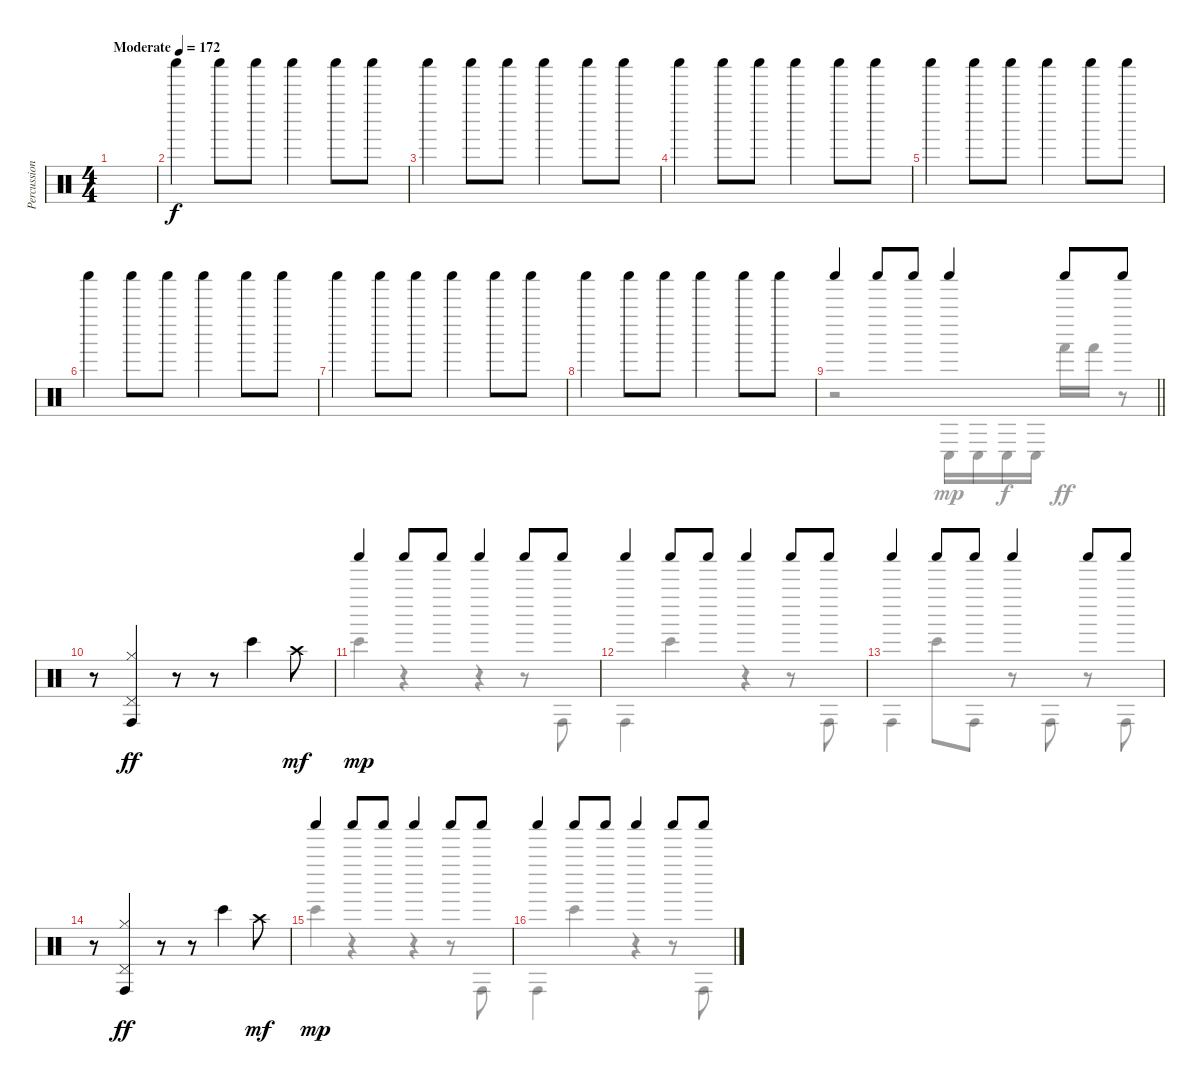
\track ("Percussion" "Percussion") {instrument percussion}
\staff {score}
\articulation defaults
\voice
\ts (4 4)
\tempo (172 "Moderate")
\clef neutral
\ks c
|
"Shaker (hit)".4 "Shaker (hit)".8 "Shaker (hit)".8 "Shaker (hit)".4 "Shaker (hit)".8 "Shaker (hit)".8 |
"Shaker (hit)".4 "Shaker (hit)".8 "Shaker (hit)".8 "Shaker (hit)".4 "Shaker (hit)".8 "Shaker (hit)".8 |
"Shaker (hit)".4 "Shaker (hit)".8 "Shaker (hit)".8 "Shaker (hit)".4 "Shaker (hit)".8 "Shaker (hit)".8 |
"Shaker (hit)".4 "Shaker (hit)".8 "Shaker (hit)".8 "Shaker (hit)".4 "Shaker (hit)".8 "Shaker (hit)".8 |
"Shaker (hit)".4 "Shaker (hit)".8 "Shaker (hit)".8 "Shaker (hit)".4 "Shaker (hit)".8 "Shaker (hit)".8 |
"Shaker (hit)".4 "Shaker (hit)".8 "Shaker (hit)".8 "Shaker (hit)".4 "Shaker (hit)".8 "Shaker (hit)".8 |
"Shaker (hit)".4 "Shaker (hit)".8 "Shaker (hit)".8 "Shaker (hit)".4 "Shaker (hit)".8 "Shaker (hit)".8 |
\barLineRight lightlight "Shaker (hit)".4 "Shaker (hit)".8 "Shaker (hit)".8 "Shaker (hit)".4 "Shaker (hit)".8 "Shaker (hit)".8
|
r.8 ("Conga high (hit)" "Pedal Hi-Hat (hit)" "Hi-Hat (closed)").4{dy ff} r.8 r.8 "Bongo High (hit)".4 "Crash high (hit)".8{dy mf} |
"Shaker (hit)".4{dy mp} "Shaker (hit)".8 "Shaker (hit)".8 "Shaker (hit)".4 "Shaker (hit)".8 "Shaker (hit)".8 |
"Shaker (hit)".4 "Shaker (hit)".8 "Shaker (hit)".8 "Shaker (hit)".4 "Shaker (hit)".8 "Shaker (hit)".8 |
"Shaker (hit)".4 "Shaker (hit)".8 "Shaker (hit)".8 "Shaker (hit)".4 "Shaker (hit)".8 "Shaker (hit)".8 |
r.8 ("Conga high (hit)" "Pedal Hi-Hat (hit)" "Hi-Hat (closed)").4{dy ff} r.8 r.8 "Bongo High (hit)".4 "Crash high (hit)".8{dy mf} |
"Shaker (hit)".4{dy mp} "Shaker (hit)".8 "Shaker (hit)".8 "Shaker (hit)".4 "Shaker (hit)".8 "Shaker (hit)".8 |
"Shaker (hit)".4 "Shaker (hit)".8 "Shaker (hit)".8 "Shaker (hit)".4 "Shaker (hit)".8 "Shaker (hit)".8
\voice
\clef neutral
\ottava regular
\simile none
\ks c
|
|
|
|
|
|
|
|
\barLineRight lightlight
r.2 "Conga low (hit)".16 "Conga low (hit)".16 "Conga low (hit)".16{dy f} "Conga low (hit)".16 "Hand (hit)".16{dy ff} "Hand (hit)".16 r.8 |
|
"Bongo High (hit)".4 r.4 r.4 r.8 "Conga high (hit)".8 |
"Conga high (hit)".4 "Bongo High (hit)".4 r.4 r.8 "Conga high (hit)".8 |
"Conga high (hit)".4 "Bongo High (hit)".8 "Conga high (hit)".8 r.8 "Conga high (hit)".8 r.8 "Conga high (hit)".8 |
|
"Bongo High (hit)".4 r.4 r.4 r.8 "Conga high (hit)".8 |
"Conga high (hit)".4 "Bongo High (hit)".4 r.4 r.8 "Conga high (hit)".8
